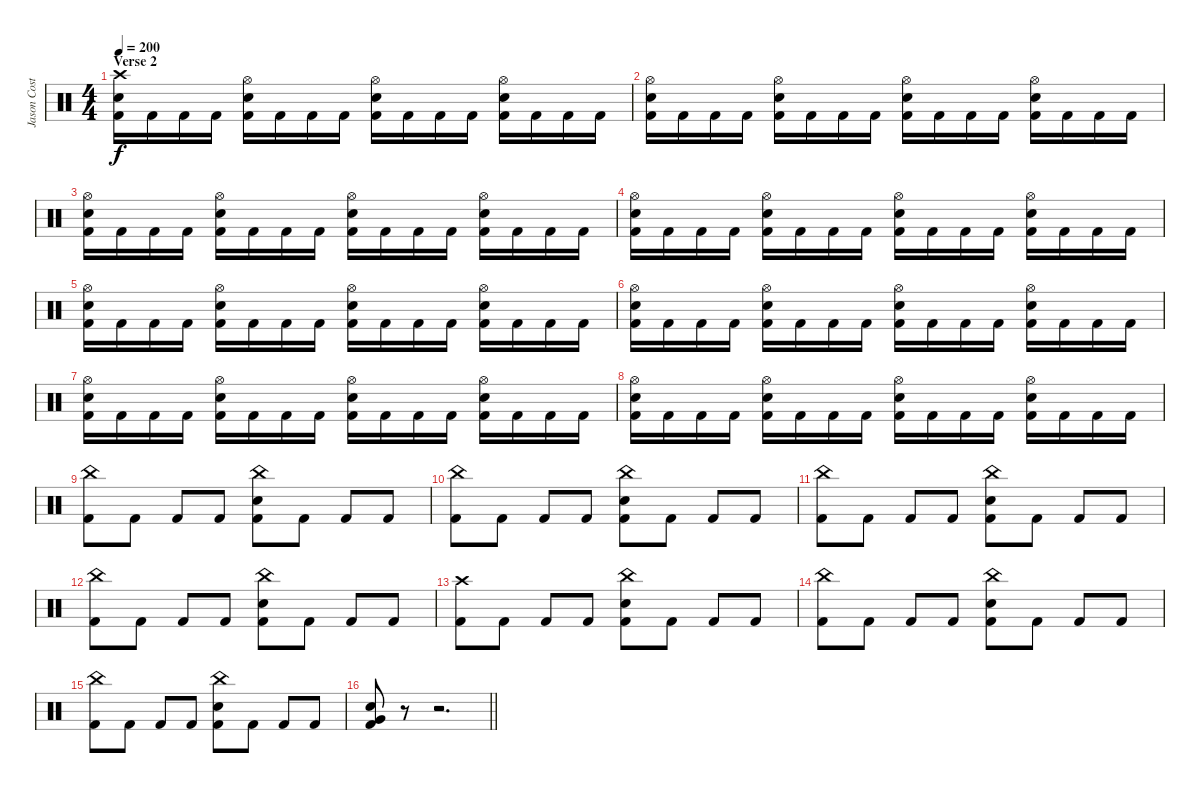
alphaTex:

\track ("Jason Costa" "Jason Cost") {instrument percussion}
\staff {score}
\articulation defaults
\ts (4 4)
\section ("" "Verse 2")
\tempo 200
\clef neutral
\ks c
("Crash high (hit)" "Electric Snare (hit)" "Kick (hit) 2").16{dy f} "Kick (hit) 2".16 "Kick (hit) 2".16 "Kick (hit) 2".16 ("Hi-Hat (open)" "Electric Snare (hit)" "Kick (hit) 2").16 "Kick (hit) 2".16 "Kick (hit) 2".16 "Kick (hit) 2".16 ("Hi-Hat (open)" "Electric Snare (hit)" "Kick (hit) 2").16 "Kick (hit) 2".16 "Kick (hit) 2".16 "Kick (hit) 2".16 ("Hi-Hat (open)" "Electric Snare (hit)" "Kick (hit) 2").16 "Kick (hit) 2".16 "Kick (hit) 2".16 "Kick (hit) 2".16 |
("Hi-Hat (open)" "Electric Snare (hit)" "Kick (hit) 2").16 "Kick (hit) 2".16 "Kick (hit) 2".16 "Kick (hit) 2".16 ("Hi-Hat (open)" "Electric Snare (hit)" "Kick (hit) 2").16 "Kick (hit) 2".16 "Kick (hit) 2".16 "Kick (hit) 2".16 ("Hi-Hat (open)" "Electric Snare (hit)" "Kick (hit) 2").16 "Kick (hit) 2".16 "Kick (hit) 2".16 "Kick (hit) 2".16 ("Hi-Hat (open)" "Electric Snare (hit)" "Kick (hit) 2").16 "Kick (hit) 2".16 "Kick (hit) 2".16 "Kick (hit) 2".16 |
("Hi-Hat (open)" "Electric Snare (hit)" "Kick (hit) 2").16 "Kick (hit) 2".16 "Kick (hit) 2".16 "Kick (hit) 2".16 ("Hi-Hat (open)" "Electric Snare (hit)" "Kick (hit) 2").16 "Kick (hit) 2".16 "Kick (hit) 2".16 "Kick (hit) 2".16 ("Hi-Hat (open)" "Electric Snare (hit)" "Kick (hit) 2").16 "Kick (hit) 2".16 "Kick (hit) 2".16 "Kick (hit) 2".16 ("Hi-Hat (open)" "Electric Snare (hit)" "Kick (hit) 2").16 "Kick (hit) 2".16 "Kick (hit) 2".16 "Kick (hit) 2".16 |
("Hi-Hat (open)" "Electric Snare (hit)" "Kick (hit) 2").16 "Kick (hit) 2".16 "Kick (hit) 2".16 "Kick (hit) 2".16 ("Hi-Hat (open)" "Electric Snare (hit)" "Kick (hit) 2").16 "Kick (hit) 2".16 "Kick (hit) 2".16 "Kick (hit) 2".16 ("Hi-Hat (open)" "Electric Snare (hit)" "Kick (hit) 2").16 "Kick (hit) 2".16 "Kick (hit) 2".16 "Kick (hit) 2".16 ("Hi-Hat (open)" "Electric Snare (hit)" "Kick (hit) 2").16 "Kick (hit) 2".16 "Kick (hit) 2".16 "Kick (hit) 2".16 |
("Hi-Hat (open)" "Electric Snare (hit)" "Kick (hit) 2").16 "Kick (hit) 2".16 "Kick (hit) 2".16 "Kick (hit) 2".16 ("Hi-Hat (open)" "Electric Snare (hit)" "Kick (hit) 2").16 "Kick (hit) 2".16 "Kick (hit) 2".16 "Kick (hit) 2".16 ("Hi-Hat (open)" "Electric Snare (hit)" "Kick (hit) 2").16 "Kick (hit) 2".16 "Kick (hit) 2".16 "Kick (hit) 2".16 ("Hi-Hat (open)" "Electric Snare (hit)" "Kick (hit) 2").16 "Kick (hit) 2".16 "Kick (hit) 2".16 "Kick (hit) 2".16 |
("Hi-Hat (open)" "Electric Snare (hit)" "Kick (hit) 2").16 "Kick (hit) 2".16 "Kick (hit) 2".16 "Kick (hit) 2".16 ("Hi-Hat (open)" "Electric Snare (hit)" "Kick (hit) 2").16 "Kick (hit) 2".16 "Kick (hit) 2".16 "Kick (hit) 2".16 ("Hi-Hat (open)" "Electric Snare (hit)" "Kick (hit) 2").16 "Kick (hit) 2".16 "Kick (hit) 2".16 "Kick (hit) 2".16 ("Hi-Hat (open)" "Electric Snare (hit)" "Kick (hit) 2").16 "Kick (hit) 2".16 "Kick (hit) 2".16 "Kick (hit) 2".16 |
("Hi-Hat (open)" "Electric Snare (hit)" "Kick (hit) 2").16 "Kick (hit) 2".16 "Kick (hit) 2".16 "Kick (hit) 2".16 ("Hi-Hat (open)" "Electric Snare (hit)" "Kick (hit) 2").16 "Kick (hit) 2".16 "Kick (hit) 2".16 "Kick (hit) 2".16 ("Hi-Hat (open)" "Electric Snare (hit)" "Kick (hit) 2").16 "Kick (hit) 2".16 "Kick (hit) 2".16 "Kick (hit) 2".16 ("Hi-Hat (open)" "Electric Snare (hit)" "Kick (hit) 2").16 "Kick (hit) 2".16 "Kick (hit) 2".16 "Kick (hit) 2".16 |
("Hi-Hat (open)" "Electric Snare (hit)" "Kick (hit) 2").16 "Kick (hit) 2".16 "Kick (hit) 2".16 "Kick (hit) 2".16 ("Hi-Hat (open)" "Electric Snare (hit)" "Kick (hit) 2").16 "Kick (hit) 2".16 "Kick (hit) 2".16 "Kick (hit) 2".16 ("Hi-Hat (open)" "Electric Snare (hit)" "Kick (hit) 2").16 "Kick (hit) 2".16 "Kick (hit) 2".16 "Kick (hit) 2".16 ("Hi-Hat (open)" "Electric Snare (hit)" "Kick (hit) 2").16 "Kick (hit) 2".16 "Kick (hit) 2".16 "Kick (hit) 2".16 |
("China (hit)" "Kick (hit) 2").8 "Kick (hit) 2".8 "Kick (hit) 2".8 "Kick (hit) 2".8 ("China (hit)" "Electric Snare (hit)" "Kick (hit) 2").8 "Kick (hit) 2".8 "Kick (hit) 2".8 "Kick (hit) 2".8 |
("China (hit)" "Kick (hit) 2").8 "Kick (hit) 2".8 "Kick (hit) 2".8 "Kick (hit) 2".8 ("China (hit)" "Electric Snare (hit)" "Kick (hit) 2").8 "Kick (hit) 2".8 "Kick (hit) 2".8 "Kick (hit) 2".8 |
("China (hit)" "Kick (hit) 2").8 "Kick (hit) 2".8 "Kick (hit) 2".8 "Kick (hit) 2".8 ("China (hit)" "Electric Snare (hit)" "Kick (hit) 2").8 "Kick (hit) 2".8 "Kick (hit) 2".8 "Kick (hit) 2".8 |
("China (hit)" "Kick (hit) 2").8 "Kick (hit) 2".8 "Kick (hit) 2".8 "Kick (hit) 2".8 ("China (hit)" "Electric Snare (hit)" "Kick (hit) 2").8 "Kick (hit) 2".8 "Kick (hit) 2".8 "Kick (hit) 2".8 |
("Crash high (hit)" "Kick (hit) 2").8 "Kick (hit) 2".8 "Kick (hit) 2".8 "Kick (hit) 2".8 ("China (hit)" "Electric Snare (hit)" "Kick (hit) 2").8 "Kick (hit) 2".8 "Kick (hit) 2".8 "Kick (hit) 2".8 |
("China (hit)" "Kick (hit) 2").8 "Kick (hit) 2".8 "Kick (hit) 2".8 "Kick (hit) 2".8 ("China (hit)" "Electric Snare (hit)" "Kick (hit) 2").8 "Kick (hit) 2".8 "Kick (hit) 2".8 "Kick (hit) 2".8 |
("China (hit)" "Kick (hit) 2").8 "Kick (hit) 2".8 "Kick (hit) 2".8 "Kick (hit) 2".8 ("China (hit)" "Electric Snare (hit)" "Kick (hit) 2").8 "Kick (hit) 2".8 "Kick (hit) 2".8 "Kick (hit) 2".8 |
\barLineRight lightlight
("Electric Snare (hit)" "Very Low Tom (hit)" "Kick (hit) 2").8 r.8 r.2{d}
